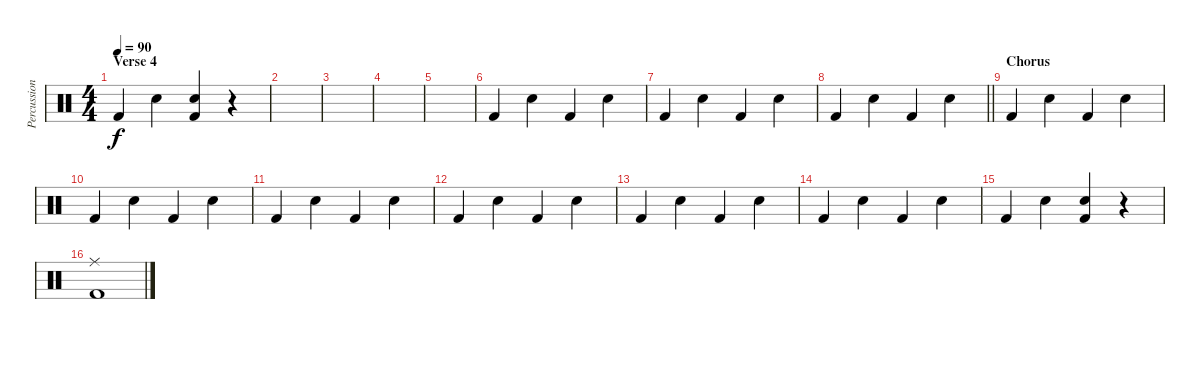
\track ("Percussion" "Percussion") {instrument percussion}
\staff {score}
\articulation defaults
\ts (4 4)
\section ("" "Verse 4")
\tempo 90
\clef neutral
\ks c "Kick (hit) 2".4{dy f} "Snare (hit) 2".4
("Snare (hit) 2" "Kick (hit) 2").4 r.4 |
|
|
|
|
"Kick (hit) 2".4 "Snare (hit) 2".4 "Kick (hit) 2".4 "Snare (hit) 2".4 |
"Kick (hit) 2".4 "Snare (hit) 2".4 "Kick (hit) 2".4 "Snare (hit) 2".4 |
\barLineRight lightlight "Kick (hit) 2".4 "Snare (hit) 2".4 "Kick (hit) 2".4 "Snare (hit) 2".4
|
\section ("" "Chorus")
"Kick (hit) 2".4 "Snare (hit) 2".4 "Kick (hit) 2".4 "Snare (hit) 2".4 |
"Kick (hit) 2".4 "Snare (hit) 2".4 "Kick (hit) 2".4 "Snare (hit) 2".4 |
"Kick (hit) 2".4 "Snare (hit) 2".4 "Kick (hit) 2".4 "Snare (hit) 2".4 |
"Kick (hit) 2".4 "Snare (hit) 2".4 "Kick (hit) 2".4 "Snare (hit) 2".4 |
"Kick (hit) 2".4 "Snare (hit) 2".4 "Kick (hit) 2".4 "Snare (hit) 2".4 |
"Kick (hit) 2".4 "Snare (hit) 2".4 "Kick (hit) 2".4 "Snare (hit) 2".4 |
"Kick (hit) 2".4 "Snare (hit) 2".4 ("Snare (hit) 2" "Kick (hit) 2").4 r.4 |
("Ride (middle)" "Kick (hit) 2").1
